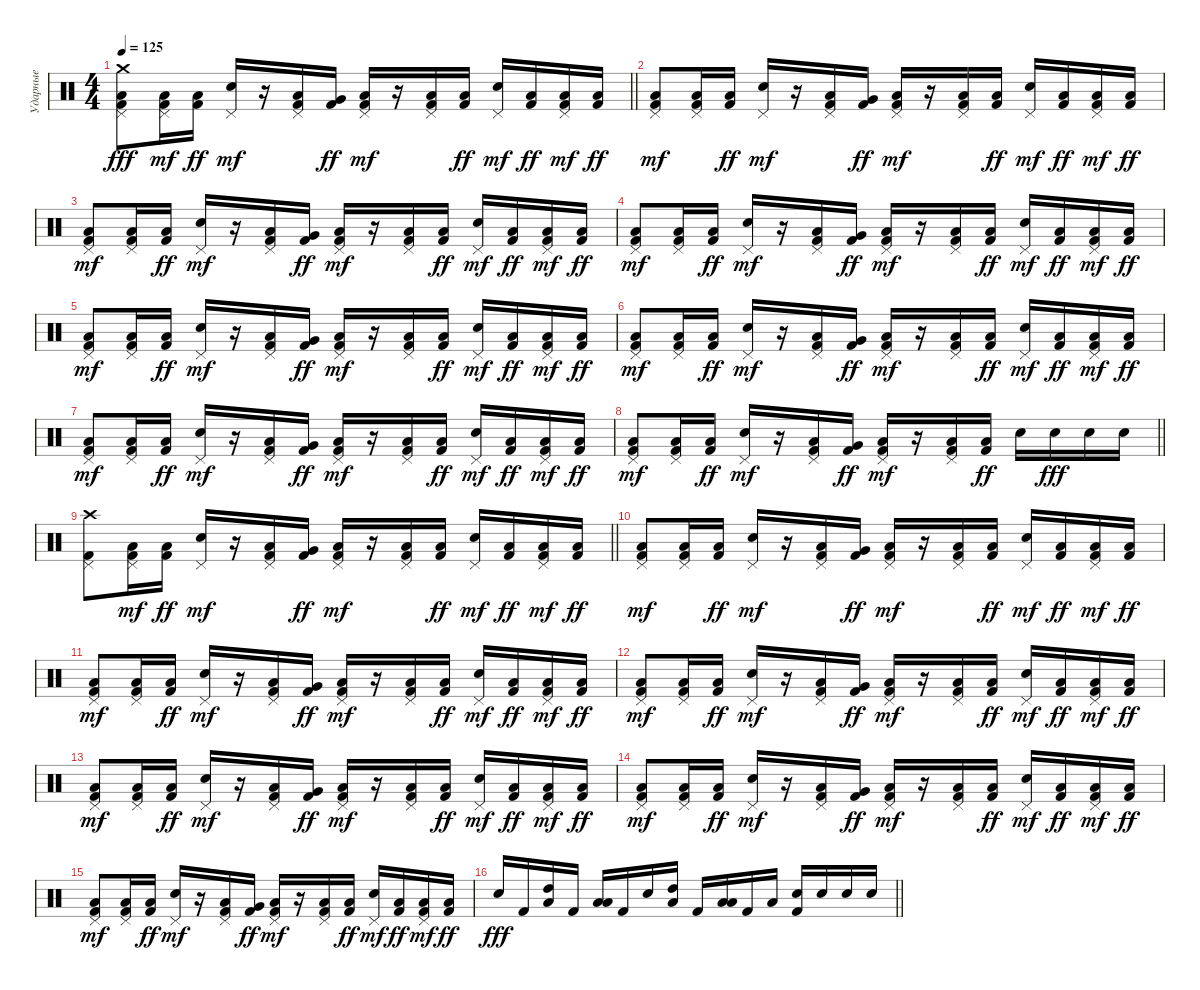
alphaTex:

\track ("Ударные" "Ударные") {instrument percussion}
\staff {score}
\articulation defaults
\ts (4 4)
\tempo 125
\clef neutral
\barLineRight lightlight
\ks c
("Kick (hit) 2" "Low Floor Tom (hit)" "Pedal Hi-Hat (hit)" "Crash medium (hit)").8{dy fff} ("Kick (hit) 2" "Low Floor Tom (hit)" "Pedal Hi-Hat (hit)").16{dy mf} ("Kick (hit) 2" "Low Tom (hit)").16{dy ff} ("Snare (hit) 2" "Pedal Hi-Hat (hit)").16{dy mf} r.16 ("Kick (hit) 2" "Low Tom (hit)" "Pedal Hi-Hat (hit)").16 ("Kick (hit) 2" "Very Low Tom (hit)").16{dy ff} ("Kick (hit) 2" "Low Floor Tom (hit)" "Pedal Hi-Hat (hit)").16{dy mf} r.16 ("Kick (hit) 2" "Low Floor Tom (hit)" "Pedal Hi-Hat (hit)").16 ("Kick (hit) 2" "Low Tom (hit)").16{dy ff} ("Snare (hit) 2" "Pedal Hi-Hat (hit)").16{dy mf} ("Kick (hit) 2" "Low Tom (hit)").16{dy ff} ("Kick (hit) 2" "Low Tom (hit)" "Pedal Hi-Hat (hit)").16{dy mf} ("Kick (hit) 2" "Low Floor Tom (hit)").16{dy ff} |
("Kick (hit) 2" "Low Floor Tom (hit)" "Pedal Hi-Hat (hit)").8{dy mf} ("Kick (hit) 2" "Low Floor Tom (hit)" "Pedal Hi-Hat (hit)").16 ("Kick (hit) 2" "Low Tom (hit)").16{dy ff} ("Snare (hit) 2" "Pedal Hi-Hat (hit)").16{dy mf} r.16 ("Kick (hit) 2" "Low Tom (hit)" "Pedal Hi-Hat (hit)").16 ("Kick (hit) 2" "Very Low Tom (hit)").16{dy ff} ("Kick (hit) 2" "Low Floor Tom (hit)" "Pedal Hi-Hat (hit)").16{dy mf} r.16 ("Kick (hit) 2" "Low Floor Tom (hit)" "Pedal Hi-Hat (hit)").16 ("Kick (hit) 2" "Low Tom (hit)").16{dy ff} ("Snare (hit) 2" "Pedal Hi-Hat (hit)").16{dy mf} ("Kick (hit) 2" "Low Tom (hit)").16{dy ff} ("Kick (hit) 2" "Low Tom (hit)" "Pedal Hi-Hat (hit)").16{dy mf} ("Kick (hit) 2" "Low Floor Tom (hit)").16{dy ff} |
("Kick (hit) 2" "Low Floor Tom (hit)" "Pedal Hi-Hat (hit)").8{dy mf} ("Kick (hit) 2" "Low Floor Tom (hit)" "Pedal Hi-Hat (hit)").16 ("Kick (hit) 2" "Low Tom (hit)").16{dy ff} ("Snare (hit) 2" "Pedal Hi-Hat (hit)").16{dy mf} r.16 ("Kick (hit) 2" "Low Tom (hit)" "Pedal Hi-Hat (hit)").16 ("Kick (hit) 2" "Very Low Tom (hit)").16{dy ff} ("Kick (hit) 2" "Low Floor Tom (hit)" "Pedal Hi-Hat (hit)").16{dy mf} r.16 ("Kick (hit) 2" "Low Floor Tom (hit)" "Pedal Hi-Hat (hit)").16 ("Kick (hit) 2" "Low Tom (hit)").16{dy ff} ("Snare (hit) 2" "Pedal Hi-Hat (hit)").16{dy mf} ("Kick (hit) 2" "Low Tom (hit)").16{dy ff} ("Kick (hit) 2" "Low Tom (hit)" "Pedal Hi-Hat (hit)").16{dy mf} ("Kick (hit) 2" "Low Floor Tom (hit)").16{dy ff} |
("Kick (hit) 2" "Low Floor Tom (hit)" "Pedal Hi-Hat (hit)").8{dy mf} ("Kick (hit) 2" "Low Floor Tom (hit)" "Pedal Hi-Hat (hit)").16 ("Kick (hit) 2" "Low Tom (hit)").16{dy ff} ("Snare (hit) 2" "Pedal Hi-Hat (hit)").16{dy mf} r.16 ("Kick (hit) 2" "Low Tom (hit)" "Pedal Hi-Hat (hit)").16 ("Kick (hit) 2" "Very Low Tom (hit)").16{dy ff} ("Kick (hit) 2" "Low Floor Tom (hit)" "Pedal Hi-Hat (hit)").16{dy mf} r.16 ("Kick (hit) 2" "Low Floor Tom (hit)" "Pedal Hi-Hat (hit)").16 ("Kick (hit) 2" "Low Tom (hit)").16{dy ff} ("Snare (hit) 2" "Pedal Hi-Hat (hit)").16{dy mf} ("Kick (hit) 2" "Low Tom (hit)").16{dy ff} ("Kick (hit) 2" "Low Tom (hit)" "Pedal Hi-Hat (hit)").16{dy mf} ("Kick (hit) 2" "Low Floor Tom (hit)").16{dy ff} |
("Kick (hit) 2" "Low Floor Tom (hit)" "Pedal Hi-Hat (hit)").8{dy mf} ("Kick (hit) 2" "Low Floor Tom (hit)" "Pedal Hi-Hat (hit)").16 ("Kick (hit) 2" "Low Tom (hit)").16{dy ff} ("Snare (hit) 2" "Pedal Hi-Hat (hit)").16{dy mf} r.16 ("Kick (hit) 2" "Low Tom (hit)" "Pedal Hi-Hat (hit)").16 ("Kick (hit) 2" "Very Low Tom (hit)").16{dy ff} ("Kick (hit) 2" "Low Floor Tom (hit)" "Pedal Hi-Hat (hit)").16{dy mf} r.16 ("Kick (hit) 2" "Low Floor Tom (hit)" "Pedal Hi-Hat (hit)").16 ("Kick (hit) 2" "Low Tom (hit)").16{dy ff} ("Snare (hit) 2" "Pedal Hi-Hat (hit)").16{dy mf} ("Kick (hit) 2" "Low Tom (hit)").16{dy ff} ("Kick (hit) 2" "Low Tom (hit)" "Pedal Hi-Hat (hit)").16{dy mf} ("Kick (hit) 2" "Low Floor Tom (hit)").16{dy ff} |
("Kick (hit) 2" "Low Floor Tom (hit)" "Pedal Hi-Hat (hit)").8{dy mf} ("Kick (hit) 2" "Low Floor Tom (hit)" "Pedal Hi-Hat (hit)").16 ("Kick (hit) 2" "Low Tom (hit)").16{dy ff} ("Snare (hit) 2" "Pedal Hi-Hat (hit)").16{dy mf} r.16 ("Kick (hit) 2" "Low Tom (hit)" "Pedal Hi-Hat (hit)").16 ("Kick (hit) 2" "Very Low Tom (hit)").16{dy ff} ("Kick (hit) 2" "Low Floor Tom (hit)" "Pedal Hi-Hat (hit)").16{dy mf} r.16 ("Kick (hit) 2" "Low Floor Tom (hit)" "Pedal Hi-Hat (hit)").16 ("Kick (hit) 2" "Low Tom (hit)").16{dy ff} ("Snare (hit) 2" "Pedal Hi-Hat (hit)").16{dy mf} ("Kick (hit) 2" "Low Tom (hit)").16{dy ff} ("Kick (hit) 2" "Low Tom (hit)" "Pedal Hi-Hat (hit)").16{dy mf} ("Kick (hit) 2" "Low Floor Tom (hit)").16{dy ff} |
("Kick (hit) 2" "Low Floor Tom (hit)" "Pedal Hi-Hat (hit)").8{dy mf} ("Kick (hit) 2" "Low Floor Tom (hit)" "Pedal Hi-Hat (hit)").16 ("Kick (hit) 2" "Low Tom (hit)").16{dy ff} ("Snare (hit) 2" "Pedal Hi-Hat (hit)").16{dy mf} r.16 ("Kick (hit) 2" "Low Tom (hit)" "Pedal Hi-Hat (hit)").16 ("Kick (hit) 2" "Very Low Tom (hit)").16{dy ff} ("Kick (hit) 2" "Low Floor Tom (hit)" "Pedal Hi-Hat (hit)").16{dy mf} r.16 ("Kick (hit) 2" "Low Floor Tom (hit)" "Pedal Hi-Hat (hit)").16 ("Kick (hit) 2" "Low Tom (hit)").16{dy ff} ("Snare (hit) 2" "Pedal Hi-Hat (hit)").16{dy mf} ("Kick (hit) 2" "Low Tom (hit)").16{dy ff} ("Kick (hit) 2" "Low Tom (hit)" "Pedal Hi-Hat (hit)").16{dy mf} ("Kick (hit) 2" "Low Floor Tom (hit)").16{dy ff} |
\barLineRight lightlight
("Kick (hit) 2" "Low Floor Tom (hit)" "Pedal Hi-Hat (hit)").8{dy mf} ("Kick (hit) 2" "Low Floor Tom (hit)" "Pedal Hi-Hat (hit)").16 ("Kick (hit) 2" "Low Tom (hit)").16{dy ff} ("Snare (hit) 2" "Pedal Hi-Hat (hit)").16{dy mf} r.16 ("Kick (hit) 2" "Low Tom (hit)" "Pedal Hi-Hat (hit)").16 ("Kick (hit) 2" "Very Low Tom (hit)").16{dy ff} ("Kick (hit) 2" "Low Floor Tom (hit)" "Pedal Hi-Hat (hit)").16{dy mf} r.16 ("Kick (hit) 2" "Low Floor Tom (hit)" "Pedal Hi-Hat (hit)").16 ("Kick (hit) 2" "Low Tom (hit)").16{dy ff} "Snare (hit) 2".16 "Snare (hit) 2".16{dy fff} "Snare (hit) 2".16 "Snare (hit) 2".16 |
\barLineRight lightlight
("Kick (hit) 2" "Pedal Hi-Hat (hit)" "Crash high (hit)").8 ("Kick (hit) 2" "Low Floor Tom (hit)" "Pedal Hi-Hat (hit)").16{dy mf} ("Kick (hit) 2" "Low Tom (hit)").16{dy ff} ("Snare (hit) 2" "Pedal Hi-Hat (hit)").16{dy mf} r.16 ("Kick (hit) 2" "Low Tom (hit)" "Pedal Hi-Hat (hit)").16 ("Kick (hit) 2" "Very Low Tom (hit)").16{dy ff} ("Kick (hit) 2" "Low Floor Tom (hit)" "Pedal Hi-Hat (hit)").16{dy mf} r.16 ("Kick (hit) 2" "Low Floor Tom (hit)" "Pedal Hi-Hat (hit)").16 ("Kick (hit) 2" "Low Tom (hit)").16{dy ff} ("Snare (hit) 2" "Pedal Hi-Hat (hit)").16{dy mf} ("Kick (hit) 2" "Low Tom (hit)").16{dy ff} ("Kick (hit) 2" "Low Tom (hit)" "Pedal Hi-Hat (hit)").16{dy mf} ("Kick (hit) 2" "Low Floor Tom (hit)").16{dy ff} |
("Kick (hit) 2" "Low Floor Tom (hit)" "Pedal Hi-Hat (hit)").8{dy mf} ("Kick (hit) 2" "Low Floor Tom (hit)" "Pedal Hi-Hat (hit)").16 ("Kick (hit) 2" "Low Tom (hit)").16{dy ff} ("Snare (hit) 2" "Pedal Hi-Hat (hit)").16{dy mf} r.16 ("Kick (hit) 2" "Low Tom (hit)" "Pedal Hi-Hat (hit)").16 ("Kick (hit) 2" "Very Low Tom (hit)").16{dy ff} ("Kick (hit) 2" "Low Floor Tom (hit)" "Pedal Hi-Hat (hit)").16{dy mf} r.16 ("Kick (hit) 2" "Low Floor Tom (hit)" "Pedal Hi-Hat (hit)").16 ("Kick (hit) 2" "Low Tom (hit)").16{dy ff} ("Snare (hit) 2" "Pedal Hi-Hat (hit)").16{dy mf} ("Kick (hit) 2" "Low Tom (hit)").16{dy ff} ("Kick (hit) 2" "Low Tom (hit)" "Pedal Hi-Hat (hit)").16{dy mf} ("Kick (hit) 2" "Low Floor Tom (hit)").16{dy ff} |
("Kick (hit) 2" "Low Floor Tom (hit)" "Pedal Hi-Hat (hit)").8{dy mf} ("Kick (hit) 2" "Low Floor Tom (hit)" "Pedal Hi-Hat (hit)").16 ("Kick (hit) 2" "Low Tom (hit)").16{dy ff} ("Snare (hit) 2" "Pedal Hi-Hat (hit)").16{dy mf} r.16 ("Kick (hit) 2" "Low Tom (hit)" "Pedal Hi-Hat (hit)").16 ("Kick (hit) 2" "Very Low Tom (hit)").16{dy ff} ("Kick (hit) 2" "Low Floor Tom (hit)" "Pedal Hi-Hat (hit)").16{dy mf} r.16 ("Kick (hit) 2" "Low Floor Tom (hit)" "Pedal Hi-Hat (hit)").16 ("Kick (hit) 2" "Low Tom (hit)").16{dy ff} ("Snare (hit) 2" "Pedal Hi-Hat (hit)").16{dy mf} ("Kick (hit) 2" "Low Tom (hit)").16{dy ff} ("Kick (hit) 2" "Low Tom (hit)" "Pedal Hi-Hat (hit)").16{dy mf} ("Kick (hit) 2" "Low Floor Tom (hit)").16{dy ff} |
("Kick (hit) 2" "Low Floor Tom (hit)" "Pedal Hi-Hat (hit)").8{dy mf} ("Kick (hit) 2" "Low Floor Tom (hit)" "Pedal Hi-Hat (hit)").16 ("Kick (hit) 2" "Low Tom (hit)").16{dy ff} ("Snare (hit) 2" "Pedal Hi-Hat (hit)").16{dy mf} r.16 ("Kick (hit) 2" "Low Tom (hit)" "Pedal Hi-Hat (hit)").16 ("Kick (hit) 2" "Very Low Tom (hit)").16{dy ff} ("Kick (hit) 2" "Low Floor Tom (hit)" "Pedal Hi-Hat (hit)").16{dy mf} r.16 ("Kick (hit) 2" "Low Floor Tom (hit)" "Pedal Hi-Hat (hit)").16 ("Kick (hit) 2" "Low Tom (hit)").16{dy ff} ("Snare (hit) 2" "Pedal Hi-Hat (hit)").16{dy mf} ("Kick (hit) 2" "Low Tom (hit)").16{dy ff} ("Kick (hit) 2" "Low Tom (hit)" "Pedal Hi-Hat (hit)").16{dy mf} ("Kick (hit) 2" "Low Floor Tom (hit)").16{dy ff} |
("Kick (hit) 2" "Low Floor Tom (hit)" "Pedal Hi-Hat (hit)").8{dy mf} ("Kick (hit) 2" "Low Floor Tom (hit)" "Pedal Hi-Hat (hit)").16 ("Kick (hit) 2" "Low Tom (hit)").16{dy ff} ("Snare (hit) 2" "Pedal Hi-Hat (hit)").16{dy mf} r.16 ("Kick (hit) 2" "Low Tom (hit)" "Pedal Hi-Hat (hit)").16 ("Kick (hit) 2" "Very Low Tom (hit)").16{dy ff} ("Kick (hit) 2" "Low Floor Tom (hit)" "Pedal Hi-Hat (hit)").16{dy mf} r.16 ("Kick (hit) 2" "Low Floor Tom (hit)" "Pedal Hi-Hat (hit)").16 ("Kick (hit) 2" "Low Tom (hit)").16{dy ff} ("Snare (hit) 2" "Pedal Hi-Hat (hit)").16{dy mf} ("Kick (hit) 2" "Low Tom (hit)").16{dy ff} ("Kick (hit) 2" "Low Tom (hit)" "Pedal Hi-Hat (hit)").16{dy mf} ("Kick (hit) 2" "Low Floor Tom (hit)").16{dy ff} |
("Kick (hit) 2" "Low Floor Tom (hit)" "Pedal Hi-Hat (hit)").8{dy mf} ("Kick (hit) 2" "Low Floor Tom (hit)" "Pedal Hi-Hat (hit)").16 ("Kick (hit) 2" "Low Tom (hit)").16{dy ff} ("Snare (hit) 2" "Pedal Hi-Hat (hit)").16{dy mf} r.16 ("Kick (hit) 2" "Low Tom (hit)" "Pedal Hi-Hat (hit)").16 ("Kick (hit) 2" "Very Low Tom (hit)").16{dy ff} ("Kick (hit) 2" "Low Floor Tom (hit)" "Pedal Hi-Hat (hit)").16{dy mf} r.16 ("Kick (hit) 2" "Low Floor Tom (hit)" "Pedal Hi-Hat (hit)").16 ("Kick (hit) 2" "Low Tom (hit)").16{dy ff} ("Snare (hit) 2" "Pedal Hi-Hat (hit)").16{dy mf} ("Kick (hit) 2" "Low Tom (hit)").16{dy ff} ("Kick (hit) 2" "Low Tom (hit)" "Pedal Hi-Hat (hit)").16{dy mf} ("Kick (hit) 2" "Low Floor Tom (hit)").16{dy ff} |
("Kick (hit) 2" "Low Floor Tom (hit)" "Pedal Hi-Hat (hit)").8{dy mf} ("Kick (hit) 2" "Low Floor Tom (hit)" "Pedal Hi-Hat (hit)").16 ("Kick (hit) 2" "Low Tom (hit)").16{dy ff} ("Snare (hit) 2" "Pedal Hi-Hat (hit)").16{dy mf} r.16 ("Kick (hit) 2" "Low Tom (hit)" "Pedal Hi-Hat (hit)").16 ("Kick (hit) 2" "Very Low Tom (hit)").16{dy ff} ("Kick (hit) 2" "Low Floor Tom (hit)" "Pedal Hi-Hat (hit)").16{dy mf} r.16 ("Kick (hit) 2" "Low Floor Tom (hit)" "Pedal Hi-Hat (hit)").16 ("Kick (hit) 2" "Low Tom (hit)").16{dy ff} ("Snare (hit) 2" "Pedal Hi-Hat (hit)").16{dy mf} ("Kick (hit) 2" "Low Tom (hit)").16{dy ff} ("Kick (hit) 2" "Low Tom (hit)" "Pedal Hi-Hat (hit)").16{dy mf} ("Kick (hit) 2" "Low Floor Tom (hit)").16{dy ff} |
\barLineRight lightlight "Snare (hit) 2".16{dy fff} "Kick (hit) 2".16
("High Tom (hit)" "Low Floor Tom (hit)").16 "Kick (hit) 2".16 ("Low Floor Tom (hit)" "Low Tom (hit)").16 "Kick (hit) 2".16 "Snare (hit) 2".16 ("High Tom (hit)" "Low Floor Tom (hit)").16 "Kick (hit) 2".16 ("Low Tom (hit)" "Low Floor Tom (hit)").16 "Kick (hit) 2".16 "Low Floor Tom (hit)".16 ("Snare (hit) 2" "Kick (hit) 2").16 "Snare (hit) 2".16 "Snare (hit) 2".16 "Snare (hit) 2".16
